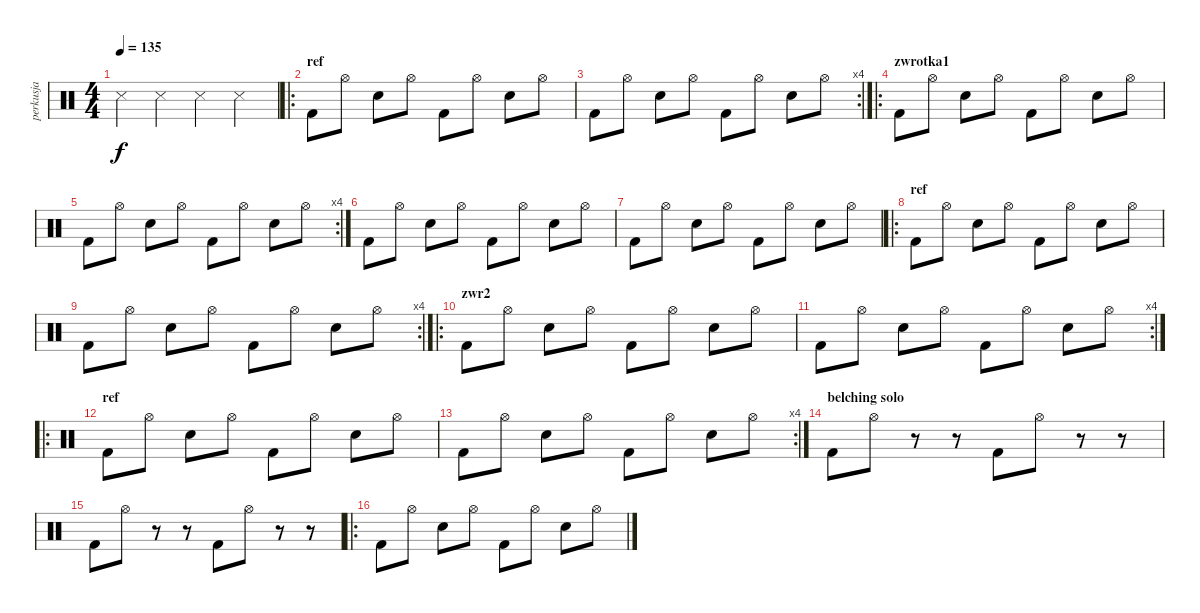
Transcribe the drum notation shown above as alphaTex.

\track ("perkusja" "perkusja") {instrument percussion}
\staff {score}
\articulation defaults
\ts (4 4)
\tempo 135
\clef neutral
\ks c "Snare (side stick) 3".4{dy f} "Snare (side stick) 3".4 "Snare (side stick) 3".4 "Snare (side stick) 3".4
|
\ro
\section ("" "ref")
"Kick (hit) 2".8 "Hi-Hat (open)".8 "Electric Snare (hit)".8 "Hi-Hat (open)".8 "Kick (hit) 2".8 "Hi-Hat (open)".8 "Electric Snare (hit)".8 "Hi-Hat (open)".8 |
\rc 4 "Kick (hit) 2".8 "Hi-Hat (open)".8 "Electric Snare (hit)".8 "Hi-Hat (open)".8 "Kick (hit) 2".8 "Hi-Hat (open)".8 "Electric Snare (hit)".8 "Hi-Hat (open)".8
|
\ro
\section ("" "zwrotka1")
"Kick (hit) 2".8 "Hi-Hat (open)".8 "Electric Snare (hit)".8 "Hi-Hat (open)".8 "Kick (hit) 2".8 "Hi-Hat (open)".8 "Electric Snare (hit)".8 "Hi-Hat (open)".8 |
\rc 4 "Kick (hit) 2".8 "Hi-Hat (open)".8 "Electric Snare (hit)".8 "Hi-Hat (open)".8 "Kick (hit) 2".8 "Hi-Hat (open)".8 "Electric Snare (hit)".8 "Hi-Hat (open)".8
|
"Kick (hit) 2".8 "Hi-Hat (open)".8 "Electric Snare (hit)".8 "Hi-Hat (open)".8 "Kick (hit) 2".8 "Hi-Hat (open)".8 "Electric Snare (hit)".8 "Hi-Hat (open)".8 |
"Kick (hit) 2".8 "Hi-Hat (open)".8 "Electric Snare (hit)".8 "Hi-Hat (open)".8 "Kick (hit) 2".8 "Hi-Hat (open)".8 "Electric Snare (hit)".8 "Hi-Hat (open)".8 |
\ro
\section ("" "ref")
"Kick (hit) 2".8 "Hi-Hat (open)".8 "Electric Snare (hit)".8 "Hi-Hat (open)".8 "Kick (hit) 2".8 "Hi-Hat (open)".8 "Electric Snare (hit)".8 "Hi-Hat (open)".8 |
\rc 4 "Kick (hit) 2".8 "Hi-Hat (open)".8 "Electric Snare (hit)".8 "Hi-Hat (open)".8 "Kick (hit) 2".8 "Hi-Hat (open)".8 "Electric Snare (hit)".8 "Hi-Hat (open)".8
|
\ro
\section ("" "zwr2")
"Kick (hit) 2".8 "Hi-Hat (open)".8 "Electric Snare (hit)".8 "Hi-Hat (open)".8 "Kick (hit) 2".8 "Hi-Hat (open)".8 "Electric Snare (hit)".8 "Hi-Hat (open)".8 |
\rc 4 "Kick (hit) 2".8 "Hi-Hat (open)".8 "Electric Snare (hit)".8 "Hi-Hat (open)".8 "Kick (hit) 2".8 "Hi-Hat (open)".8 "Electric Snare (hit)".8 "Hi-Hat (open)".8
|
\ro
\section ("" "ref")
"Kick (hit) 2".8 "Hi-Hat (open)".8 "Electric Snare (hit)".8 "Hi-Hat (open)".8 "Kick (hit) 2".8 "Hi-Hat (open)".8 "Electric Snare (hit)".8 "Hi-Hat (open)".8 |
\rc 4 "Kick (hit) 2".8 "Hi-Hat (open)".8 "Electric Snare (hit)".8 "Hi-Hat (open)".8 "Kick (hit) 2".8 "Hi-Hat (open)".8 "Electric Snare (hit)".8 "Hi-Hat (open)".8
|
\section ("" "belching solo")
"Kick (hit) 2".8 "Hi-Hat (open)".8 r.8 r.8 "Kick (hit) 2".8 "Hi-Hat (open)".8 r.8 r.8 |
"Kick (hit) 2".8 "Hi-Hat (open)".8 r.8 r.8 "Kick (hit) 2".8 "Hi-Hat (open)".8 r.8 r.8 |
\ro "Kick (hit) 2".8 "Hi-Hat (open)".8 "Electric Snare (hit)".8 "Hi-Hat (open)".8 "Kick (hit) 2".8 "Hi-Hat (open)".8 "Electric Snare (hit)".8 "Hi-Hat (open)".8
